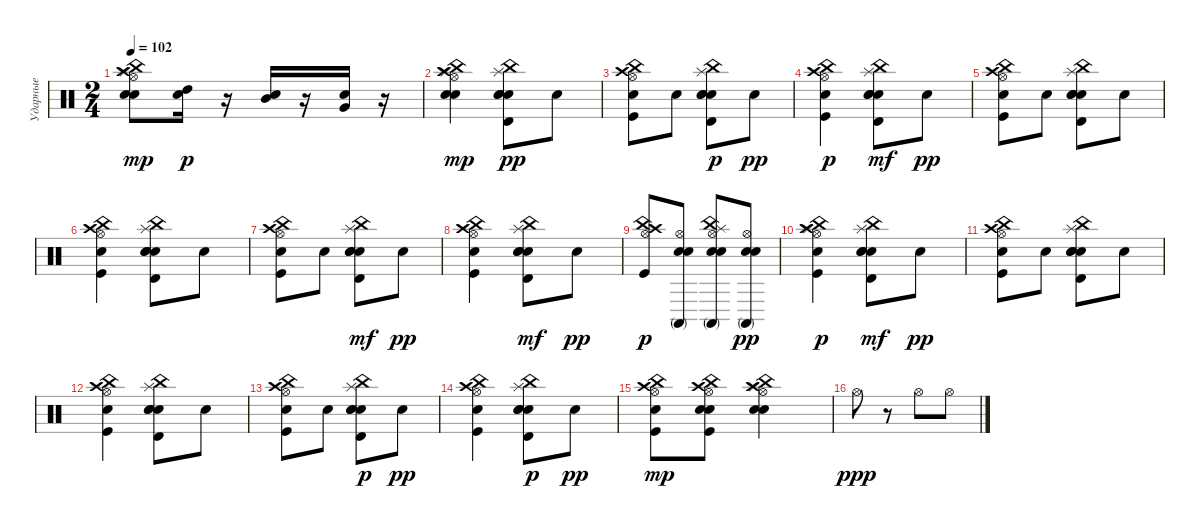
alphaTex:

\track ("Ударные" "Ударные") {instrument percussion}
\staff {score}
\articulation defaults
\ts (2 4)
\tempo 102
\clef neutral
\ks c
("Electric Snare (hit)" "Snare (hit) 2" "Hi-Hat (open)" "China (hit)" "Splash (hit)" "Crash high (hit)").8{dy mp} ("High Tom (hit)" "Snare (hit) 2").16{dy p} r.16 ("Mid Tom (hit)" "Snare (hit) 2").16 r.16 ("Very Low Tom (hit)" "Snare (hit) 2").16 r.16 |
("Electric Snare (hit)" "Snare (hit) 2" "Hi-Hat (open)" "China (hit)" "Splash (hit)" "Crash high (hit)").4{dy mp} ("Electric Snare (hit)" "China (hit)" "Timbale high (hit)" "Snare (hit) 2" "Splash (hit)" "Hand Clap (hit)").8{dy pp} "Hand Clap (hit)".8 |
("Kick (hit)" "Hi-Hat (open)" "Crash high (hit)" "China (hit)" "Hand Clap (hit)").8 "Hand Clap (hit)".8 ("Splash (hit)" "China (hit)" "Electric Snare (hit)" "Hand Clap (hit)" "Snare (hit) 2" "Timbale high (hit)").8{dy p} "Hand Clap (hit)".8{dy pp} |
("Hi-Hat (open)" "Kick (hit)" "Crash high (hit)" "Hand Clap (hit)" "China (hit)").4{dy p} ("China (hit)" "Splash (hit)" "Hand Clap (hit)" "Snare (hit) 2" "Timbale high (hit)" "Electric Snare (hit)").8{dy mf} "Hand Clap (hit)".8{dy pp} |
("Kick (hit)" "China (hit)" "Hand Clap (hit)" "Crash high (hit)" "Hi-Hat (open)").8 "Hand Clap (hit)".8 ("China (hit)" "Snare (hit) 2" "Electric Snare (hit)" "Timbale high (hit)" "Hand Clap (hit)" "Splash (hit)").8 "Hand Clap (hit)".8 |
("Hi-Hat (open)" "Crash high (hit)" "Kick (hit)" "China (hit)" "Hand Clap (hit)").4 ("China (hit)" "Electric Snare (hit)" "Snare (hit) 2" "Splash (hit)" "Timbale high (hit)" "Hand Clap (hit)").8 "Hand Clap (hit)".8 |
("Hi-Hat (open)" "China (hit)" "Kick (hit)" "Hand Clap (hit)" "Crash high (hit)").8 "Hand Clap (hit)".8 ("China (hit)" "Snare (hit) 2" "Splash (hit)" "Timbale high (hit)" "Hand Clap (hit)" "Electric Snare (hit)").8{dy mf} "Hand Clap (hit)".8{dy pp} |
("Kick (hit)" "Hand Clap (hit)" "Hi-Hat (open)" "China (hit)" "Crash high (hit)").4 ("China (hit)" "Splash (hit)" "Timbale high (hit)" "Hand Clap (hit)" "Electric Snare (hit)" "Snare (hit) 2").8{dy mf} "Hand Clap (hit)".8{dy pp} |
("Crash high (hit)" "Kick (hit)" "Hi-Hat (open)" "China (hit)").8{dy p} ("Electric Snare (hit)" "Snare (hit) 2" "Hi-Hat (open)" "Conga high (mute)").8 ("Splash (hit)" "Electric Snare (hit)" "China (hit)" "Conga high (mute)" "Hi-Hat (open)" "Snare (hit) 2").8 ("Electric Snare (hit)" "Conga high (mute)" "Snare (hit) 2" "Hi-Hat (open)").8{dy pp} |
("Crash high (hit)" "Hi-Hat (open)" "China (hit)" "Splash (hit)" "Hand Clap (hit)" "Kick (hit)").4{dy p} ("Timbale high (hit)" "Snare (hit) 2" "China (hit)" "Splash (hit)" "Hand Clap (hit)" "Electric Snare (hit)").8{dy mf} "Hand Clap (hit)".8{dy pp} |
("China (hit)" "Hi-Hat (open)" "Hand Clap (hit)" "Kick (hit)" "Crash high (hit)").8 "Hand Clap (hit)".8 ("Splash (hit)" "China (hit)" "Snare (hit) 2" "Timbale high (hit)" "Electric Snare (hit)" "Hand Clap (hit)").8 "Hand Clap (hit)".8 |
("China (hit)" "Crash high (hit)" "Hi-Hat (open)" "Kick (hit)" "Hand Clap (hit)").4 ("Splash (hit)" "China (hit)" "Snare (hit) 2" "Timbale high (hit)" "Electric Snare (hit)" "Hand Clap (hit)").8 "Hand Clap (hit)".8 |
("Hand Clap (hit)" "Crash high (hit)" "China (hit)" "Kick (hit)" "Hi-Hat (open)").8 "Hand Clap (hit)".8 ("Timbale high (hit)" "Splash (hit)" "Electric Snare (hit)" "Hand Clap (hit)" "Snare (hit) 2" "China (hit)").8{dy p} "Hand Clap (hit)".8{dy pp} |
("China (hit)" "Kick (hit)" "Crash high (hit)" "Hi-Hat (open)" "Hand Clap (hit)").4 ("Electric Snare (hit)" "Timbale high (hit)" "Snare (hit) 2" "Hand Clap (hit)" "Splash (hit)" "China (hit)").8{dy p} "Hand Clap (hit)".8{dy pp} |
("China (hit)" "Hi-Hat (open)" "Hand Clap (hit)" "Crash high (hit)" "Kick (hit)").8{dy mp} ("Electric Snare (hit)" "China (hit)" "Hi-Hat (open)" "Snare (hit) 2" "Crash high (hit)" "Kick (hit)").8 ("Electric Snare (hit)" "Snare (hit) 2" "Hi-Hat (open)" "China (hit)" "Splash (hit)" "Crash high (hit)").4 |
"Hi-Hat (open)".8{dy ppp} r.8 "Hi-Hat (open)".8 "Hi-Hat (open)".8
